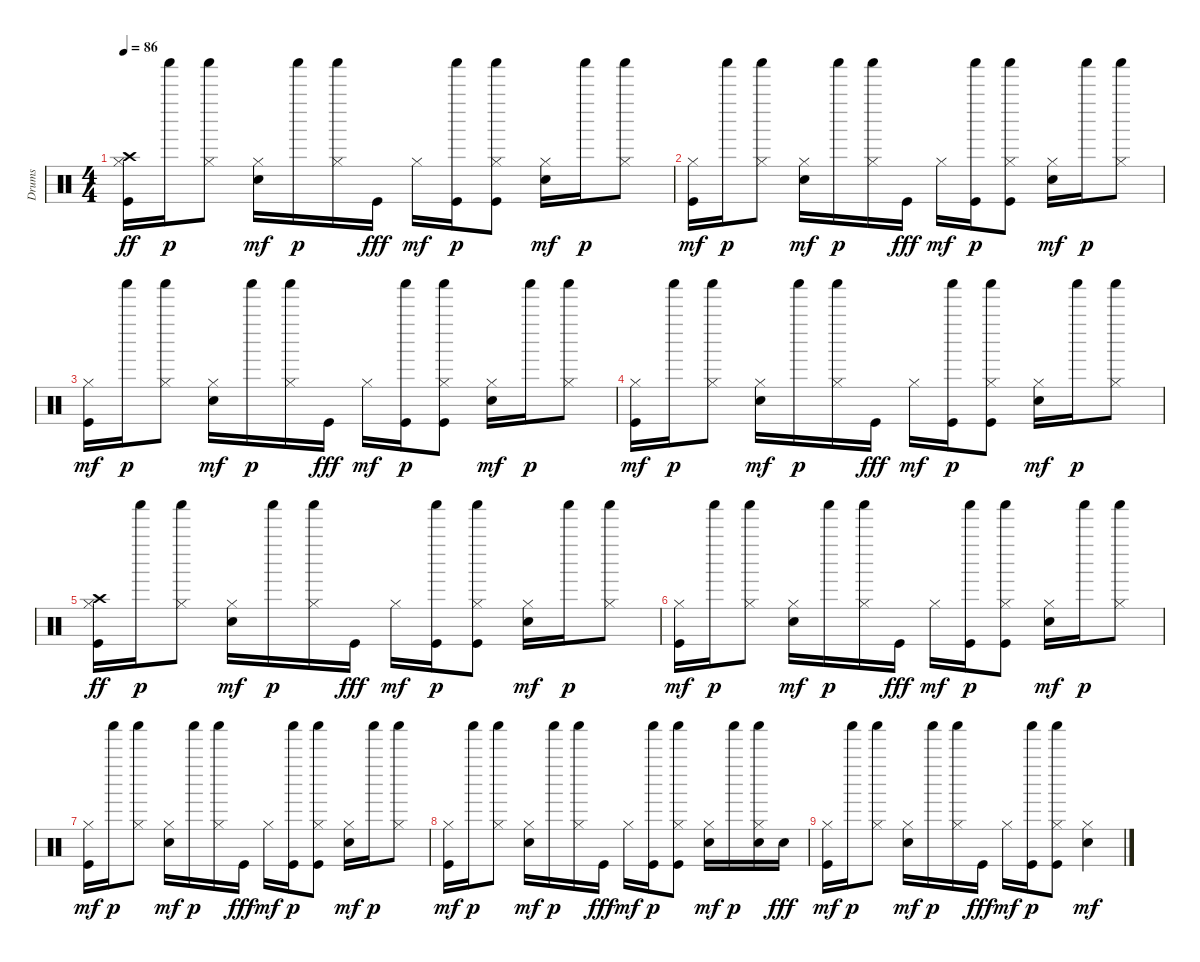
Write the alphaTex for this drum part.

\track ("Drums               " "Drums     ") {instrument percussion}
\staff {score}
\articulation defaults
\ts (4 4)
\tempo 86
\clef neutral
\ks c
("Kick (hit)" "Hi-Hat (closed)" "Crash high (hit)").16{dy ff} "Shaker (hit)".16{dy p} ("Hi-Hat (closed)" "Shaker (hit)").8 ("Snare (hit) 2" "Hi-Hat (closed)").16{dy mf} "Shaker (hit)".16{dy p} ("Hi-Hat (closed)" "Shaker (hit)").16 "Kick (hit)".16{dy fff} "Hi-Hat (closed)".16{dy mf} ("Kick (hit)" "Shaker (hit)").16{dy p} ("Kick (hit)" "Hi-Hat (closed)" "Shaker (hit)").8 ("Snare (hit) 2" "Hi-Hat (closed)").16{dy mf} "Shaker (hit)".16{dy p} ("Hi-Hat (closed)" "Shaker (hit)").8 |
("Kick (hit)" "Hi-Hat (closed)").16{dy mf} "Shaker (hit)".16{dy p} ("Hi-Hat (closed)" "Shaker (hit)").8 ("Snare (hit) 2" "Hi-Hat (closed)").16{dy mf} "Shaker (hit)".16{dy p} ("Hi-Hat (closed)" "Shaker (hit)").16 "Kick (hit)".16{dy fff} "Hi-Hat (closed)".16{dy mf} ("Kick (hit)" "Shaker (hit)").16{dy p} ("Kick (hit)" "Hi-Hat (closed)" "Shaker (hit)").8 ("Snare (hit) 2" "Hi-Hat (closed)").16{dy mf} "Shaker (hit)".16{dy p} ("Hi-Hat (closed)" "Shaker (hit)").8 |
("Kick (hit)" "Hi-Hat (closed)").16{dy mf} "Shaker (hit)".16{dy p} ("Hi-Hat (closed)" "Shaker (hit)").8 ("Snare (hit) 2" "Hi-Hat (closed)").16{dy mf} "Shaker (hit)".16{dy p} ("Hi-Hat (closed)" "Shaker (hit)").16 "Kick (hit)".16{dy fff} "Hi-Hat (closed)".16{dy mf} ("Kick (hit)" "Shaker (hit)").16{dy p} ("Kick (hit)" "Hi-Hat (closed)" "Shaker (hit)").8 ("Snare (hit) 2" "Hi-Hat (closed)").16{dy mf} "Shaker (hit)".16{dy p} ("Hi-Hat (closed)" "Shaker (hit)").8 |
("Kick (hit)" "Hi-Hat (closed)").16{dy mf} "Shaker (hit)".16{dy p} ("Hi-Hat (closed)" "Shaker (hit)").8 ("Snare (hit) 2" "Hi-Hat (closed)").16{dy mf} "Shaker (hit)".16{dy p} ("Hi-Hat (closed)" "Shaker (hit)").16 "Kick (hit)".16{dy fff} "Hi-Hat (closed)".16{dy mf} ("Kick (hit)" "Shaker (hit)").16{dy p} ("Kick (hit)" "Hi-Hat (closed)" "Shaker (hit)").8 ("Snare (hit) 2" "Hi-Hat (closed)").16{dy mf} "Shaker (hit)".16{dy p} ("Hi-Hat (closed)" "Shaker (hit)").8 |
("Kick (hit)" "Hi-Hat (closed)" "Crash high (hit)").16{dy ff} "Shaker (hit)".16{dy p} ("Hi-Hat (closed)" "Shaker (hit)").8 ("Snare (hit) 2" "Hi-Hat (closed)").16{dy mf} "Shaker (hit)".16{dy p} ("Hi-Hat (closed)" "Shaker (hit)").16 "Kick (hit)".16{dy fff} "Hi-Hat (closed)".16{dy mf} ("Kick (hit)" "Shaker (hit)").16{dy p} ("Kick (hit)" "Hi-Hat (closed)" "Shaker (hit)").8 ("Snare (hit) 2" "Hi-Hat (closed)").16{dy mf} "Shaker (hit)".16{dy p} ("Hi-Hat (closed)" "Shaker (hit)").8 |
("Kick (hit)" "Hi-Hat (closed)").16{dy mf} "Shaker (hit)".16{dy p} ("Hi-Hat (closed)" "Shaker (hit)").8 ("Snare (hit) 2" "Hi-Hat (closed)").16{dy mf} "Shaker (hit)".16{dy p} ("Hi-Hat (closed)" "Shaker (hit)").16 "Kick (hit)".16{dy fff} "Hi-Hat (closed)".16{dy mf} ("Kick (hit)" "Shaker (hit)").16{dy p} ("Kick (hit)" "Hi-Hat (closed)" "Shaker (hit)").8 ("Snare (hit) 2" "Hi-Hat (closed)").16{dy mf} "Shaker (hit)".16{dy p} ("Hi-Hat (closed)" "Shaker (hit)").8 |
("Kick (hit)" "Hi-Hat (closed)").16{dy mf} "Shaker (hit)".16{dy p} ("Hi-Hat (closed)" "Shaker (hit)").8 ("Snare (hit) 2" "Hi-Hat (closed)").16{dy mf} "Shaker (hit)".16{dy p} ("Hi-Hat (closed)" "Shaker (hit)").16 "Kick (hit)".16{dy fff} "Hi-Hat (closed)".16{dy mf} ("Kick (hit)" "Shaker (hit)").16{dy p} ("Kick (hit)" "Hi-Hat (closed)" "Shaker (hit)").8 ("Snare (hit) 2" "Hi-Hat (closed)").16{dy mf} "Shaker (hit)".16{dy p} ("Hi-Hat (closed)" "Shaker (hit)").8 |
("Kick (hit)" "Hi-Hat (closed)").16{dy mf} "Shaker (hit)".16{dy p} ("Hi-Hat (closed)" "Shaker (hit)").8 ("Snare (hit) 2" "Hi-Hat (closed)").16{dy mf} "Shaker (hit)".16{dy p} ("Hi-Hat (closed)" "Shaker (hit)").16 "Kick (hit)".16{dy fff} "Hi-Hat (closed)".16{dy mf} ("Kick (hit)" "Shaker (hit)").16{dy p} ("Kick (hit)" "Hi-Hat (closed)" "Shaker (hit)").8 ("Snare (hit) 2" "Hi-Hat (closed)").16{dy mf} "Shaker (hit)".16{dy p} ("Snare (hit) 2" "Hi-Hat (closed)" "Shaker (hit)").16 "Snare (hit) 2".16{dy fff} |
("Kick (hit)" "Hi-Hat (closed)").16{dy mf} "Shaker (hit)".16{dy p} ("Hi-Hat (closed)" "Shaker (hit)").8 ("Snare (hit) 2" "Hi-Hat (closed)").16{dy mf} "Shaker (hit)".16{dy p} ("Hi-Hat (closed)" "Shaker (hit)").16 "Kick (hit)".16{dy fff} "Hi-Hat (closed)".16{dy mf} ("Kick (hit)" "Shaker (hit)").16{dy p} ("Kick (hit)" "Hi-Hat (closed)" "Shaker (hit)").8 ("Snare (hit) 2" "Hi-Hat (closed)").4{dy mf}
